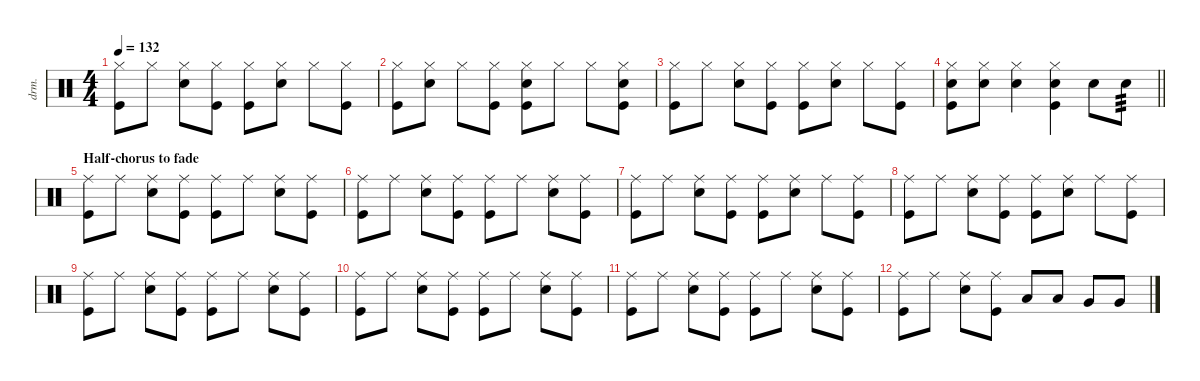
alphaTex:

\defaultSystemsLayout 4
\hideDynamics
\bracketExtendMode nobrackets
\otherSystemsTrackNameOrientation horizontal
\track ("Drums" "drm.") {instrument percussion}
\staff {score}
\articulation defaults
\ts (4 4)
\tempo 132
\clef neutral
\ks c
("Hi-Hat (closed)" "Kick (hit)").8{dy f beam Down} "Hi-Hat (closed)".8{beam Down} ("Hi-Hat (closed)" "Snare (hit) 2").8{beam Down} ("Hi-Hat (closed)" "Kick (hit)").8{beam Down} ("Hi-Hat (closed)" "Kick (hit)").8{beam Down} ("Hi-Hat (closed)" "Snare (hit) 2").8{beam Down} "Hi-Hat (closed)".8{beam Down} ("Hi-Hat (closed)" "Kick (hit)").8{beam Down} |
("Hi-Hat (closed)" "Kick (hit)").8{beam Down} ("Hi-Hat (closed)" "Snare (hit) 2").8{beam Down} "Hi-Hat (closed)".8{beam Down} ("Hi-Hat (closed)" "Kick (hit)").8{beam Down} ("Hi-Hat (closed)" "Snare (hit) 2" "Kick (hit)").8{beam Down} "Hi-Hat (closed)".8{beam Down} "Hi-Hat (closed)".8{beam Down} ("Hi-Hat (closed)" "Snare (hit) 2" "Kick (hit)").8{beam Down} |
("Hi-Hat (closed)" "Kick (hit)").8{beam Down} "Hi-Hat (closed)".8{beam Down} ("Hi-Hat (closed)" "Snare (hit) 2").8{beam Down} ("Hi-Hat (closed)" "Kick (hit)").8{beam Down} ("Hi-Hat (closed)" "Kick (hit)").8{beam Down} ("Hi-Hat (closed)" "Snare (hit) 2").8{beam Down} "Hi-Hat (closed)".8{beam Down} ("Hi-Hat (closed)" "Kick (hit)").8{beam Down} |
\barLineRight lightlight
("Hi-Hat (closed)" "Snare (hit) 2" "Kick (hit)").8{beam Down} ("Hi-Hat (closed)" "Snare (hit) 2").8{beam Down} ("Hi-Hat (closed)" "Snare (hit) 2").4{beam Down} ("Hi-Hat (closed)" "Snare (hit) 2" "Kick (hit)").4{beam Down} "Snare (hit) 2".8{beam Down} "Snare (hit) 2".8{tp 3 beam Down} |
\section ("" "Half-chorus to fade")
("Ride (middle)" "Kick (hit)").8{beam Down} "Ride (middle)".8{beam Down} ("Ride (middle)" "Snare (hit) 2").8{beam Down} ("Ride (middle)" "Kick (hit)").8{beam Down} ("Ride (middle)" "Kick (hit)").8{beam Down} "Ride (middle)".8{beam Down} ("Ride (middle)" "Snare (hit) 2").8{beam Down} ("Ride (middle)" "Kick (hit)").8{beam Down} |
("Ride (middle)" "Kick (hit)").8{beam Down} "Ride (middle)".8{beam Down} ("Ride (middle)" "Snare (hit) 2").8{beam Down} ("Ride (middle)" "Kick (hit)").8{beam Down} ("Ride (middle)" "Kick (hit)").8{beam Down} "Ride (middle)".8{beam Down} ("Ride (middle)" "Snare (hit) 2").8{beam Down} ("Ride (middle)" "Kick (hit)").8{beam Down} |
("Ride (middle)" "Kick (hit)").8{beam Down} "Ride (middle)".8{beam Down} ("Ride (middle)" "Snare (hit) 2").8{beam Down} ("Ride (middle)" "Kick (hit)").8{beam Down} ("Ride (middle)" "Kick (hit)").8{beam Down} ("Ride (middle)" "Snare (hit) 2").8{beam Down} "Ride (middle)".8{beam Down} ("Ride (middle)" "Kick (hit)").8{beam Down} |
("Ride (middle)" "Kick (hit)").8{beam Down} "Ride (middle)".8{beam Down} ("Ride (middle)" "Snare (hit) 2").8{beam Down} ("Ride (middle)" "Kick (hit)").8{beam Down} ("Ride (middle)" "Kick (hit)").8{beam Down} ("Ride (middle)" "Snare (hit) 2").8{beam Down} "Ride (middle)".8{beam Down} ("Ride (middle)" "Kick (hit)").8{beam Down} |
("Ride (middle)" "Kick (hit)").8{beam Down} "Ride (middle)".8{beam Down} ("Ride (middle)" "Snare (hit) 2").8{beam Down} ("Ride (middle)" "Kick (hit)").8{beam Down} ("Ride (middle)" "Kick (hit)").8{beam Down} "Ride (middle)".8{beam Down} ("Ride (middle)" "Snare (hit) 2").8{beam Down} ("Ride (middle)" "Kick (hit)").8{beam Down} |
("Ride (middle)" "Kick (hit)").8{beam Down} "Ride (middle)".8{beam Down} ("Ride (middle)" "Snare (hit) 2").8{beam Down} ("Ride (middle)" "Kick (hit)").8{beam Down} ("Ride (middle)" "Kick (hit)").8{beam Down} "Ride (middle)".8{beam Down} ("Ride (middle)" "Snare (hit) 2").8{beam Down} ("Ride (middle)" "Kick (hit)").8{beam Down} |
("Ride (middle)" "Kick (hit)").8{beam Down} "Ride (middle)".8{beam Down} ("Ride (middle)" "Snare (hit) 2").8{beam Down} ("Ride (middle)" "Kick (hit)").8{beam Down} ("Ride (middle)" "Kick (hit)").8{beam Down} "Ride (middle)".8{beam Down} ("Ride (middle)" "Snare (hit) 2").8{beam Down} ("Ride (middle)" "Kick (hit)").8{beam Down} |
("Ride (middle)" "Kick (hit)").8{beam Down} "Ride (middle)".8{beam Down} ("Ride (middle)" "Snare (hit) 2").8{beam Down} ("Ride (middle)" "Kick (hit)").8{beam Down} "Low Tom (hit)".8{beam Up} "Low Tom (hit)".8{beam Up} "Very Low Tom (hit)".8{beam Up} "Very Low Tom (hit)".8{beam Up}
